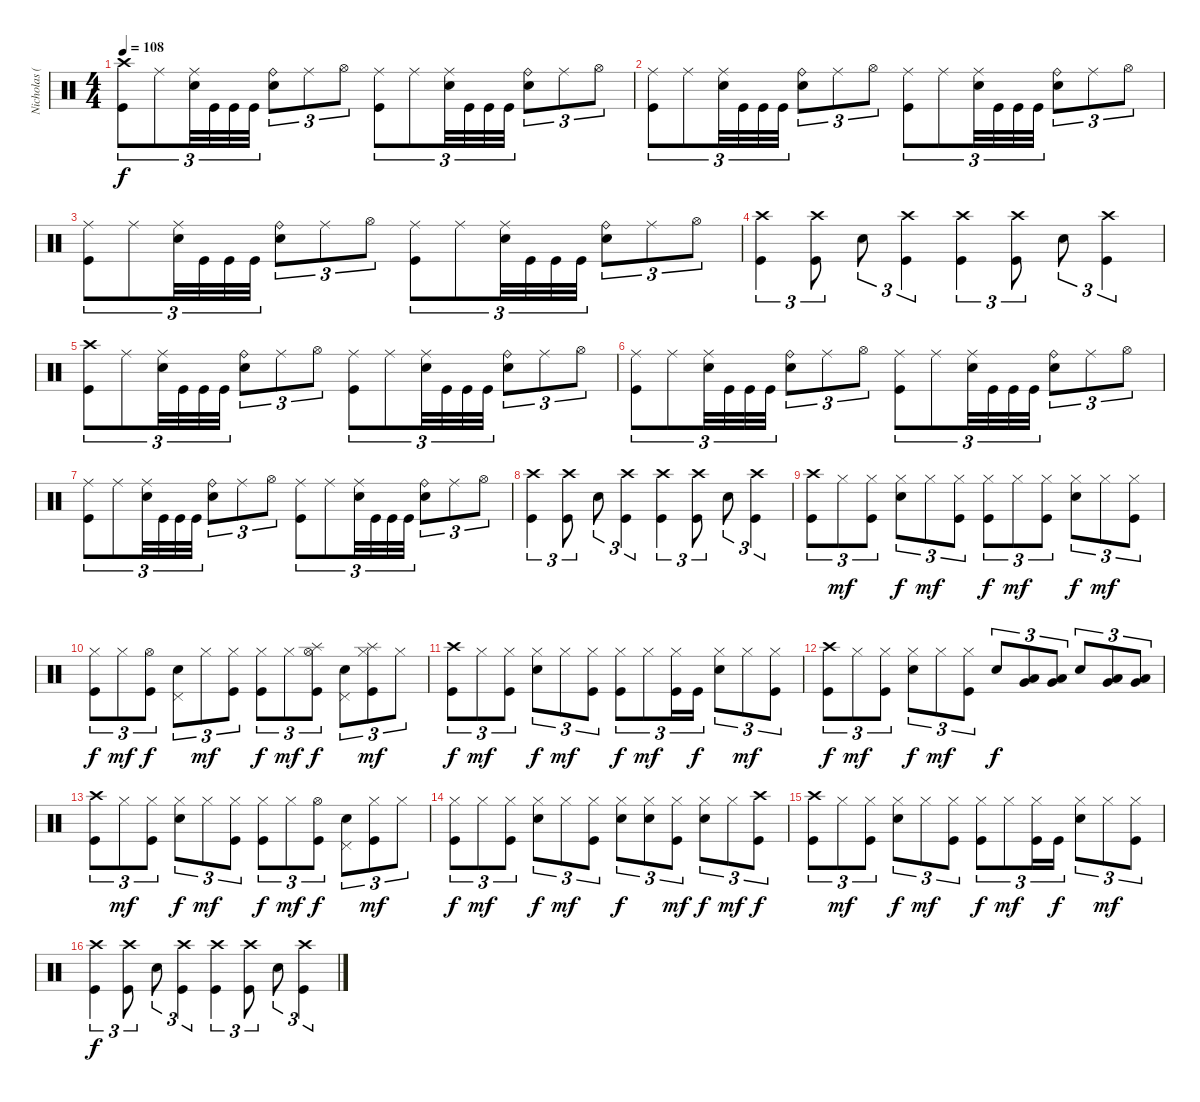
\track ("Nicholas (Drums)" "Nicholas (") {instrument percussion}
\staff {score}
\articulation defaults
\ts (4 4)
\tempo 108
\clef neutral
\ks c
("Crash high (hit)" "Kick (hit)").8{tu (3 2) dy f} "Ride (middle)".8{tu (3 2)} ("Ride (middle)" "Electric Snare (hit)").32{tu (3 2)} "Kick (hit)".32{tu (3 2)} "Kick (hit)".32{tu (3 2)} "Kick (hit)".32{tu (3 2)} ("Ride (bell)" "Electric Snare (hit)").8{tu (3 2)} "Ride (middle)".8{tu (3 2)} "Hi-Hat (open)".8{tu (3 2)} ("Ride (middle)" "Kick (hit)").8{tu (3 2)} "Ride (middle)".8{tu (3 2)} ("Ride (middle)" "Electric Snare (hit)").32{tu (3 2)} "Kick (hit)".32{tu (3 2)} "Kick (hit)".32{tu (3 2)} "Kick (hit)".32{tu (3 2)} ("Ride (bell)" "Electric Snare (hit)").8{tu (3 2)} "Ride (middle)".8{tu (3 2)} "Hi-Hat (open)".8{tu (3 2)} |
("Ride (middle)" "Kick (hit)").8{tu (3 2)} "Ride (middle)".8{tu (3 2)} ("Ride (middle)" "Electric Snare (hit)").32{tu (3 2)} "Kick (hit)".32{tu (3 2)} "Kick (hit)".32{tu (3 2)} "Kick (hit)".32{tu (3 2)} ("Ride (bell)" "Electric Snare (hit)").8{tu (3 2)} "Ride (middle)".8{tu (3 2)} "Hi-Hat (open)".8{tu (3 2)} ("Ride (middle)" "Kick (hit)").8{tu (3 2)} "Ride (middle)".8{tu (3 2)} ("Ride (middle)" "Electric Snare (hit)").32{tu (3 2)} "Kick (hit)".32{tu (3 2)} "Kick (hit)".32{tu (3 2)} "Kick (hit)".32{tu (3 2)} ("Ride (bell)" "Electric Snare (hit)").8{tu (3 2)} "Ride (middle)".8{tu (3 2)} "Hi-Hat (open)".8{tu (3 2)} |
("Ride (middle)" "Kick (hit)").8{tu (3 2)} "Ride (middle)".8{tu (3 2)} ("Ride (middle)" "Electric Snare (hit)").32{tu (3 2)} "Kick (hit)".32{tu (3 2)} "Kick (hit)".32{tu (3 2)} "Kick (hit)".32{tu (3 2)} ("Ride (bell)" "Electric Snare (hit)").8{tu (3 2)} "Ride (middle)".8{tu (3 2)} "Hi-Hat (open)".8{tu (3 2)} ("Ride (middle)" "Kick (hit)").8{tu (3 2)} "Ride (middle)".8{tu (3 2)} ("Ride (middle)" "Electric Snare (hit)").32{tu (3 2)} "Kick (hit)".32{tu (3 2)} "Kick (hit)".32{tu (3 2)} "Kick (hit)".32{tu (3 2)} ("Ride (bell)" "Electric Snare (hit)").8{tu (3 2)} "Ride (middle)".8{tu (3 2)} "Hi-Hat (open)".8{tu (3 2)} |
("Crash high (hit)" "Kick (hit)").4{tu (3 2)} ("Crash high (hit)" "Kick (hit)").8{tu (3 2)} "Electric Snare (hit)".8{tu (3 2)} ("Crash high (hit)" "Kick (hit)").4{tu (3 2)} ("Crash high (hit)" "Kick (hit)").4{tu (3 2)} ("Crash high (hit)" "Kick (hit)").8{tu (3 2)} "Electric Snare (hit)".8{tu (3 2)} ("Crash high (hit)" "Kick (hit)").4{tu (3 2)} |
("Crash high (hit)" "Kick (hit)").8{tu (3 2)} "Ride (middle)".8{tu (3 2)} ("Ride (middle)" "Electric Snare (hit)").32{tu (3 2)} "Kick (hit)".32{tu (3 2)} "Kick (hit)".32{tu (3 2)} "Kick (hit)".32{tu (3 2)} ("Ride (bell)" "Electric Snare (hit)").8{tu (3 2)} "Ride (middle)".8{tu (3 2)} "Hi-Hat (open)".8{tu (3 2)} ("Ride (middle)" "Kick (hit)").8{tu (3 2)} "Ride (middle)".8{tu (3 2)} ("Ride (middle)" "Electric Snare (hit)").32{tu (3 2)} "Kick (hit)".32{tu (3 2)} "Kick (hit)".32{tu (3 2)} "Kick (hit)".32{tu (3 2)} ("Ride (bell)" "Electric Snare (hit)").8{tu (3 2)} "Ride (middle)".8{tu (3 2)} "Hi-Hat (open)".8{tu (3 2)} |
("Ride (middle)" "Kick (hit)").8{tu (3 2)} "Ride (middle)".8{tu (3 2)} ("Ride (middle)" "Electric Snare (hit)").32{tu (3 2)} "Kick (hit)".32{tu (3 2)} "Kick (hit)".32{tu (3 2)} "Kick (hit)".32{tu (3 2)} ("Ride (bell)" "Electric Snare (hit)").8{tu (3 2)} "Ride (middle)".8{tu (3 2)} "Hi-Hat (open)".8{tu (3 2)} ("Ride (middle)" "Kick (hit)").8{tu (3 2)} "Ride (middle)".8{tu (3 2)} ("Ride (middle)" "Electric Snare (hit)").32{tu (3 2)} "Kick (hit)".32{tu (3 2)} "Kick (hit)".32{tu (3 2)} "Kick (hit)".32{tu (3 2)} ("Ride (bell)" "Electric Snare (hit)").8{tu (3 2)} "Ride (middle)".8{tu (3 2)} "Hi-Hat (open)".8{tu (3 2)} |
("Ride (middle)" "Kick (hit)").8{tu (3 2)} "Ride (middle)".8{tu (3 2)} ("Ride (middle)" "Electric Snare (hit)").32{tu (3 2)} "Kick (hit)".32{tu (3 2)} "Kick (hit)".32{tu (3 2)} "Kick (hit)".32{tu (3 2)} ("Ride (bell)" "Electric Snare (hit)").8{tu (3 2)} "Ride (middle)".8{tu (3 2)} "Hi-Hat (open)".8{tu (3 2)} ("Ride (middle)" "Kick (hit)").8{tu (3 2)} "Ride (middle)".8{tu (3 2)} ("Ride (middle)" "Electric Snare (hit)").32{tu (3 2)} "Kick (hit)".32{tu (3 2)} "Kick (hit)".32{tu (3 2)} "Kick (hit)".32{tu (3 2)} ("Ride (bell)" "Electric Snare (hit)").8{tu (3 2)} "Ride (middle)".8{tu (3 2)} "Hi-Hat (open)".8{tu (3 2)} |
("Crash high (hit)" "Kick (hit)").4{tu (3 2)} ("Crash high (hit)" "Kick (hit)").8{tu (3 2)} "Electric Snare (hit)".8{tu (3 2)} ("Crash high (hit)" "Kick (hit)").4{tu (3 2)} ("Crash high (hit)" "Kick (hit)").4{tu (3 2)} ("Crash high (hit)" "Kick (hit)").8{tu (3 2)} "Electric Snare (hit)".8{tu (3 2)} ("Crash high (hit)" "Kick (hit)").4{tu (3 2)} |
("Crash high (hit)" "Kick (hit)").8{tu (3 2)} "Hi-Hat (closed)".8{tu (3 2) dy mf} ("Hi-Hat (closed)" "Kick (hit)").8{tu (3 2)} ("Hi-Hat (closed)" "Electric Snare (hit)").8{tu (3 2) dy f} "Hi-Hat (closed)".8{tu (3 2) dy mf} ("Hi-Hat (closed)" "Kick (hit)").8{tu (3 2)} ("Hi-Hat (closed)" "Kick (hit)").8{tu (3 2) dy f} "Hi-Hat (closed)".8{tu (3 2) dy mf} ("Hi-Hat (closed)" "Kick (hit)").8{tu (3 2)} ("Hi-Hat (closed)" "Electric Snare (hit)").8{tu (3 2) dy f} "Hi-Hat (closed)".8{tu (3 2) dy mf} ("Hi-Hat (closed)" "Kick (hit)").8{tu (3 2)} |
("Hi-Hat (closed)" "Kick (hit)").8{tu (3 2) dy f} "Hi-Hat (closed)".8{tu (3 2) dy mf} ("Hi-Hat (open)" "Kick (hit)").8{tu (3 2) dy f} ("Pedal Hi-Hat (hit)" "Electric Snare (hit)").8{tu (3 2)} "Hi-Hat (closed)".8{tu (3 2) dy mf} ("Hi-Hat (closed)" "Kick (hit)").8{tu (3 2)} ("Hi-Hat (closed)" "Kick (hit)").8{tu (3 2) dy f} "Hi-Hat (closed)".8{tu (3 2) dy mf} ("Splash (hit)" "Hi-Hat (open)" "Kick (hit)").8{tu (3 2) dy f} ("Pedal Hi-Hat (hit)" "Electric Snare (hit)").8{tu (3 2)} ("Splash (hit)" "Hi-Hat (closed)" "Kick (hit)").8{tu (3 2) dy mf} "Hi-Hat (closed)".8{tu (3 2)} |
("Crash high (hit)" "Kick (hit)").8{tu (3 2) dy f} "Hi-Hat (closed)".8{tu (3 2) dy mf} ("Hi-Hat (closed)" "Kick (hit)").8{tu (3 2)} ("Hi-Hat (closed)" "Electric Snare (hit)").8{tu (3 2) dy f} "Hi-Hat (closed)".8{tu (3 2) dy mf} ("Hi-Hat (closed)" "Kick (hit)").8{tu (3 2)} ("Hi-Hat (closed)" "Kick (hit)").8{tu (3 2) dy f} "Hi-Hat (closed)".8{tu (3 2) dy mf} ("Hi-Hat (closed)" "Kick (hit)").16{tu (3 2)} "Kick (hit)".16{tu (3 2) dy f} ("Hi-Hat (closed)" "Electric Snare (hit)").8{tu (3 2)} "Hi-Hat (closed)".8{tu (3 2) dy mf} ("Hi-Hat (closed)" "Kick (hit)").8{tu (3 2)} |
("Crash high (hit)" "Kick (hit)").8{tu (3 2) dy f} "Hi-Hat (closed)".8{tu (3 2) dy mf} ("Hi-Hat (closed)" "Kick (hit)").8{tu (3 2)} ("Hi-Hat (closed)" "Electric Snare (hit)").8{tu (3 2) dy f} "Hi-Hat (closed)".8{tu (3 2) dy mf} ("Hi-Hat (closed)" "Kick (hit)").8{tu (3 2)} "Electric Snare (hit)".8{tu (3 2) dy f} ("Low Tom (hit)" "Very Low Tom (hit)").8{tu (3 2) bu 60} ("Low Tom (hit)" "Very Low Tom (hit)").8{tu (3 2) bu 60} "Electric Snare (hit)".8{tu (3 2)} ("Low Tom (hit)" "Very Low Tom (hit)").8{tu (3 2) bu 60} ("Low Tom (hit)" "Very Low Tom (hit)").8{tu (3 2) bu 60} |
("Crash high (hit)" "Kick (hit)").8{tu (3 2)} "Hi-Hat (closed)".8{tu (3 2) dy mf} ("Hi-Hat (closed)" "Kick (hit)").8{tu (3 2)} ("Hi-Hat (closed)" "Electric Snare (hit)").8{tu (3 2) dy f} "Hi-Hat (closed)".8{tu (3 2) dy mf} ("Hi-Hat (closed)" "Kick (hit)").8{tu (3 2)} ("Hi-Hat (closed)" "Kick (hit)").8{tu (3 2) dy f} "Hi-Hat (closed)".8{tu (3 2) dy mf} ("Hi-Hat (open)" "Kick (hit)").8{tu (3 2) dy f} ("Pedal Hi-Hat (hit)" "Electric Snare (hit)").8{tu (3 2)} ("Hi-Hat (closed)" "Kick (hit)").8{tu (3 2) dy mf} "Hi-Hat (closed)".8{tu (3 2)} |
("Hi-Hat (closed)" "Kick (hit)").8{tu (3 2) dy f} "Hi-Hat (closed)".8{tu (3 2) dy mf} ("Hi-Hat (closed)" "Kick (hit)").8{tu (3 2)} ("Hi-Hat (closed)" "Electric Snare (hit)").8{tu (3 2) dy f} "Hi-Hat (closed)".8{tu (3 2) dy mf} ("Hi-Hat (closed)" "Kick (hit)").8{tu (3 2)} ("Hi-Hat (closed)" "Electric Snare (hit)").8{tu (3 2) dy f} ("Hi-Hat (closed)" "Electric Snare (hit)").8{tu (3 2)} ("Hi-Hat (closed)" "Kick (hit)").8{tu (3 2) dy mf} ("Hi-Hat (closed)" "Electric Snare (hit)").8{tu (3 2) dy f} "Hi-Hat (closed)".8{tu (3 2) dy mf} ("Crash high (hit)" "Kick (hit)").8{tu (3 2) dy f} |
("Crash high (hit)" "Kick (hit)").8{tu (3 2)} "Hi-Hat (closed)".8{tu (3 2) dy mf} ("Hi-Hat (closed)" "Kick (hit)").8{tu (3 2)} ("Hi-Hat (closed)" "Electric Snare (hit)").8{tu (3 2) dy f} "Hi-Hat (closed)".8{tu (3 2) dy mf} ("Hi-Hat (closed)" "Kick (hit)").8{tu (3 2)} ("Hi-Hat (closed)" "Kick (hit)").8{tu (3 2) dy f} "Hi-Hat (closed)".8{tu (3 2) dy mf} ("Hi-Hat (closed)" "Kick (hit)").16{tu (3 2)} "Kick (hit)".16{tu (3 2) dy f} ("Hi-Hat (closed)" "Electric Snare (hit)").8{tu (3 2)} "Hi-Hat (closed)".8{tu (3 2) dy mf} ("Hi-Hat (closed)" "Kick (hit)").8{tu (3 2)} |
("Crash high (hit)" "Kick (hit)").4{tu (3 2) dy f} ("Crash high (hit)" "Kick (hit)").8{tu (3 2)} "Electric Snare (hit)".8{tu (3 2)} ("Crash high (hit)" "Kick (hit)").4{tu (3 2)} ("Crash high (hit)" "Kick (hit)").4{tu (3 2)} ("Crash high (hit)" "Kick (hit)").8{tu (3 2)} "Electric Snare (hit)".8{tu (3 2)} ("Crash high (hit)" "Kick (hit)").4{tu (3 2)}
